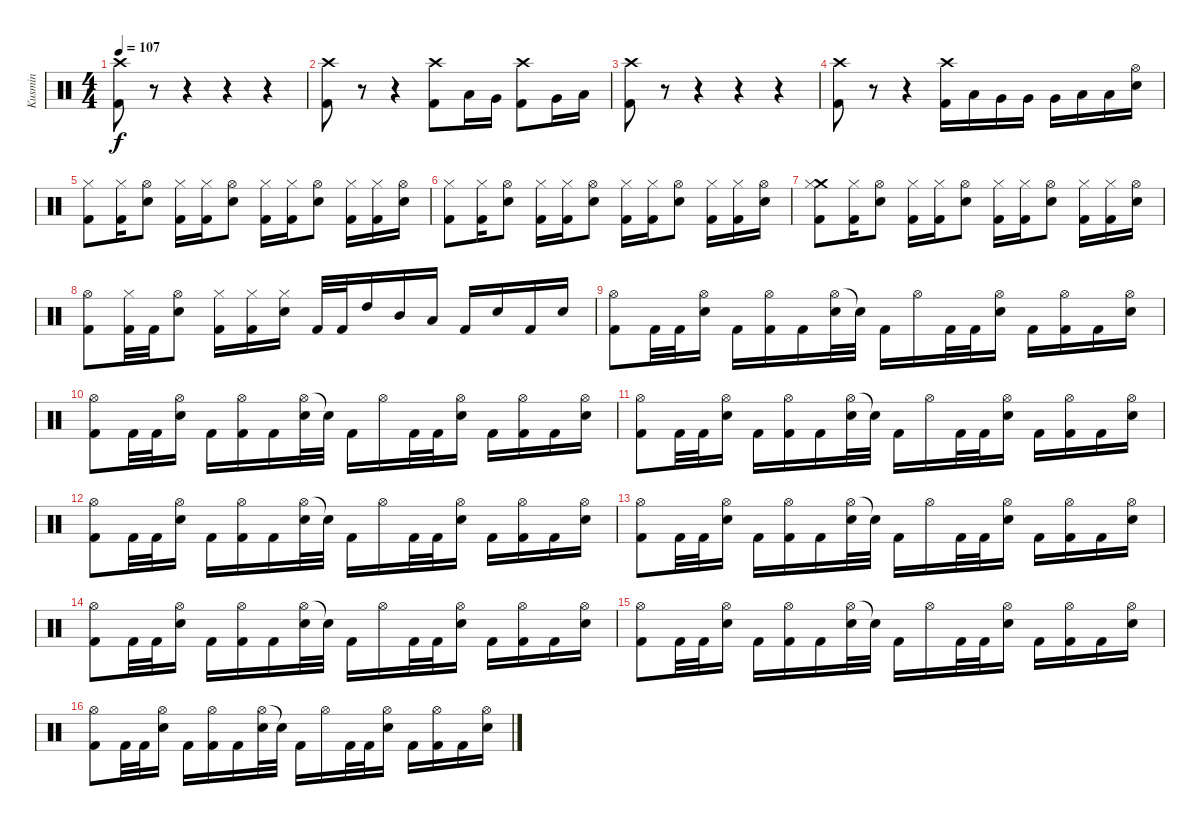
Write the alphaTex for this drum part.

\track ("Kusmin" "Kusmin") {instrument percussion}
\staff {score}
\articulation defaults
\ts (4 4)
\tempo 107
\clef neutral
\ks c
("Crash high (hit)" "Kick (hit) 2").8{dy f} r.8 r.4 r.4 r.4 |
("Crash high (hit)" "Kick (hit) 2").8 r.8 r.4 ("Crash high (hit)" "Kick (hit) 2").8 "Low Tom (hit)".16 "Very Low Tom (hit)".16 ("Crash high (hit)" "Kick (hit) 2").8 "Very Low Tom (hit)".16 "Low Floor Tom (hit)".16 |
("Crash high (hit)" "Kick (hit) 2").8 r.8 r.4 r.4 r.4 |
("Crash high (hit)" "Kick (hit) 2").8 r.8 r.4 ("Crash high (hit)" "Kick (hit) 2").16 "Low Tom (hit)".16 "Very Low Tom (hit)".16 "Very Low Tom (hit)".16 "Very Low Tom (hit)".16 "Low Floor Tom (hit)".16 "Low Floor Tom (hit)".16 ("Hi-Hat (open)" "Snare (hit) 2").16 |
("Hi-Hat (closed)" "Kick (hit) 2").8 ("Hi-Hat (closed)" "Kick (hit) 2").16 ("Hi-Hat (open)" "Snare (hit) 2").8 ("Hi-Hat (closed)" "Kick (hit) 2").16 ("Hi-Hat (closed)" "Kick (hit) 2").16 ("Hi-Hat (open)" "Snare (hit) 2").8 ("Hi-Hat (closed)" "Kick (hit) 2").16 ("Hi-Hat (closed)" "Kick (hit) 2").16 ("Hi-Hat (open)" "Snare (hit) 2").8 ("Hi-Hat (closed)" "Kick (hit) 2").16 ("Hi-Hat (closed)" "Kick (hit) 2").16 ("Hi-Hat (open)" "Snare (hit) 2").16 |
("Hi-Hat (closed)" "Kick (hit) 2").8 ("Hi-Hat (closed)" "Kick (hit) 2").16 ("Hi-Hat (open)" "Snare (hit) 2").8 ("Hi-Hat (closed)" "Kick (hit) 2").16 ("Hi-Hat (closed)" "Kick (hit) 2").16 ("Hi-Hat (open)" "Snare (hit) 2").8 ("Hi-Hat (closed)" "Kick (hit) 2").16 ("Hi-Hat (closed)" "Kick (hit) 2").16 ("Hi-Hat (open)" "Snare (hit) 2").8 ("Hi-Hat (closed)" "Kick (hit) 2").16 ("Hi-Hat (closed)" "Kick (hit) 2").16 ("Hi-Hat (open)" "Snare (hit) 2").16 |
("Crash medium (hit)" "Hi-Hat (closed)" "Kick (hit) 2").8 ("Hi-Hat (closed)" "Kick (hit) 2").16 ("Hi-Hat (open)" "Snare (hit) 2").8 ("Hi-Hat (closed)" "Kick (hit) 2").16 ("Hi-Hat (closed)" "Kick (hit) 2").16 ("Hi-Hat (open)" "Snare (hit) 2").8 ("Hi-Hat (closed)" "Kick (hit) 2").16 ("Hi-Hat (closed)" "Kick (hit) 2").16 ("Hi-Hat (open)" "Snare (hit) 2").8 ("Hi-Hat (closed)" "Kick (hit) 2").16 ("Hi-Hat (closed)" "Kick (hit) 2").16 ("Hi-Hat (open)" "Snare (hit) 2").16 |
("Hi-Hat (open)" "Kick (hit) 2").8 ("Hi-Hat (closed)" "Kick (hit) 2").32 "Kick (hit) 2".32 ("Hi-Hat (open)" "Snare (hit) 2").8 ("Hi-Hat (closed)" "Kick (hit) 2").16 ("Hi-Hat (closed)" "Kick (hit) 2").16 ("Hi-Hat (closed)" "Snare (hit) 2").16 "Kick (hit) 2".32 "Kick (hit) 2".32 "High Tom (hit)".16 "Mid Tom (hit)".16 "Low Tom (hit)".16 "Kick (hit) 2".16 "Snare (hit) 2".16 "Kick (hit) 2".16 "Snare (hit) 2".16 |
("Hi-Hat (open)" "Kick (hit) 2").8 "Kick (hit) 2".32 "Kick (hit) 2".32 ("Hi-Hat (open)" "Snare (hit) 2").16 "Kick (hit) 2".16 ("Hi-Hat (open)" "Kick (hit) 2").16 "Kick (hit) 2".16 ("Hi-Hat (open)" "Snare (hit) 2").32 "Snare (hit)"{t}.32 "Kick (hit) 2".16 "Hi-Hat (open)".16 "Kick (hit) 2".32 "Kick (hit) 2".32 ("Hi-Hat (open)" "Snare (hit) 2").16 "Kick (hit) 2".16 ("Hi-Hat (open)" "Kick (hit) 2").16 "Kick (hit) 2".16 ("Hi-Hat (open)" "Snare (hit) 2").16 |
("Hi-Hat (open)" "Kick (hit) 2").8 "Kick (hit) 2".32 "Kick (hit) 2".32 ("Hi-Hat (open)" "Snare (hit) 2").16 "Kick (hit) 2".16 ("Hi-Hat (open)" "Kick (hit) 2").16 "Kick (hit) 2".16 ("Hi-Hat (open)" "Snare (hit) 2").32 "Snare (hit)"{t}.32 "Kick (hit) 2".16 "Hi-Hat (open)".16 "Kick (hit) 2".32 "Kick (hit) 2".32 ("Hi-Hat (open)" "Snare (hit) 2").16 "Kick (hit) 2".16 ("Hi-Hat (open)" "Kick (hit) 2").16 "Kick (hit) 2".16 ("Hi-Hat (open)" "Snare (hit) 2").16 |
("Hi-Hat (open)" "Kick (hit) 2").8 "Kick (hit) 2".32 "Kick (hit) 2".32 ("Hi-Hat (open)" "Snare (hit) 2").16 "Kick (hit) 2".16 ("Hi-Hat (open)" "Kick (hit) 2").16 "Kick (hit) 2".16 ("Hi-Hat (open)" "Snare (hit) 2").32 "Snare (hit)"{t}.32 "Kick (hit) 2".16 "Hi-Hat (open)".16 "Kick (hit) 2".32 "Kick (hit) 2".32 ("Hi-Hat (open)" "Snare (hit) 2").16 "Kick (hit) 2".16 ("Hi-Hat (open)" "Kick (hit) 2").16 "Kick (hit) 2".16 ("Hi-Hat (open)" "Snare (hit) 2").16 |
("Hi-Hat (open)" "Kick (hit) 2").8 "Kick (hit) 2".32 "Kick (hit) 2".32 ("Hi-Hat (open)" "Snare (hit) 2").16 "Kick (hit) 2".16 ("Hi-Hat (open)" "Kick (hit) 2").16 "Kick (hit) 2".16 ("Hi-Hat (open)" "Snare (hit) 2").32 "Snare (hit)"{t}.32 "Kick (hit) 2".16 "Hi-Hat (open)".16 "Kick (hit) 2".32 "Kick (hit) 2".32 ("Hi-Hat (open)" "Snare (hit) 2").16 "Kick (hit) 2".16 ("Hi-Hat (open)" "Kick (hit) 2").16 "Kick (hit) 2".16 ("Hi-Hat (open)" "Snare (hit) 2").16 |
("Hi-Hat (open)" "Kick (hit) 2").8 "Kick (hit) 2".32 "Kick (hit) 2".32 ("Hi-Hat (open)" "Snare (hit) 2").16 "Kick (hit) 2".16 ("Hi-Hat (open)" "Kick (hit) 2").16 "Kick (hit) 2".16 ("Hi-Hat (open)" "Snare (hit) 2").32 "Snare (hit)"{t}.32 "Kick (hit) 2".16 "Hi-Hat (open)".16 "Kick (hit) 2".32 "Kick (hit) 2".32 ("Hi-Hat (open)" "Snare (hit) 2").16 "Kick (hit) 2".16 ("Hi-Hat (open)" "Kick (hit) 2").16 "Kick (hit) 2".16 ("Hi-Hat (open)" "Snare (hit) 2").16 |
("Hi-Hat (open)" "Kick (hit) 2").8 "Kick (hit) 2".32 "Kick (hit) 2".32 ("Hi-Hat (open)" "Snare (hit) 2").16 "Kick (hit) 2".16 ("Hi-Hat (open)" "Kick (hit) 2").16 "Kick (hit) 2".16 ("Hi-Hat (open)" "Snare (hit) 2").32 "Snare (hit)"{t}.32 "Kick (hit) 2".16 "Hi-Hat (open)".16 "Kick (hit) 2".32 "Kick (hit) 2".32 ("Hi-Hat (open)" "Snare (hit) 2").16 "Kick (hit) 2".16 ("Hi-Hat (open)" "Kick (hit) 2").16 "Kick (hit) 2".16 ("Hi-Hat (open)" "Snare (hit) 2").16 |
("Hi-Hat (open)" "Kick (hit) 2").8 "Kick (hit) 2".32 "Kick (hit) 2".32 ("Hi-Hat (open)" "Snare (hit) 2").16 "Kick (hit) 2".16 ("Hi-Hat (open)" "Kick (hit) 2").16 "Kick (hit) 2".16 ("Hi-Hat (open)" "Snare (hit) 2").32 "Snare (hit)"{t}.32 "Kick (hit) 2".16 "Hi-Hat (open)".16 "Kick (hit) 2".32 "Kick (hit) 2".32 ("Hi-Hat (open)" "Snare (hit) 2").16 "Kick (hit) 2".16 ("Hi-Hat (open)" "Kick (hit) 2").16 "Kick (hit) 2".16 ("Hi-Hat (open)" "Snare (hit) 2").16 |
("Hi-Hat (open)" "Kick (hit) 2").8 "Kick (hit) 2".32 "Kick (hit) 2".32 ("Hi-Hat (open)" "Snare (hit) 2").16 "Kick (hit) 2".16 ("Hi-Hat (open)" "Kick (hit) 2").16 "Kick (hit) 2".16 ("Hi-Hat (open)" "Snare (hit) 2").32 "Snare (hit)"{t}.32 "Kick (hit) 2".16 "Hi-Hat (open)".16 "Kick (hit) 2".32 "Kick (hit) 2".32 ("Hi-Hat (open)" "Snare (hit) 2").16 "Kick (hit) 2".16 ("Hi-Hat (open)" "Kick (hit) 2").16 "Kick (hit) 2".16 ("Hi-Hat (open)" "Snare (hit) 2").16
